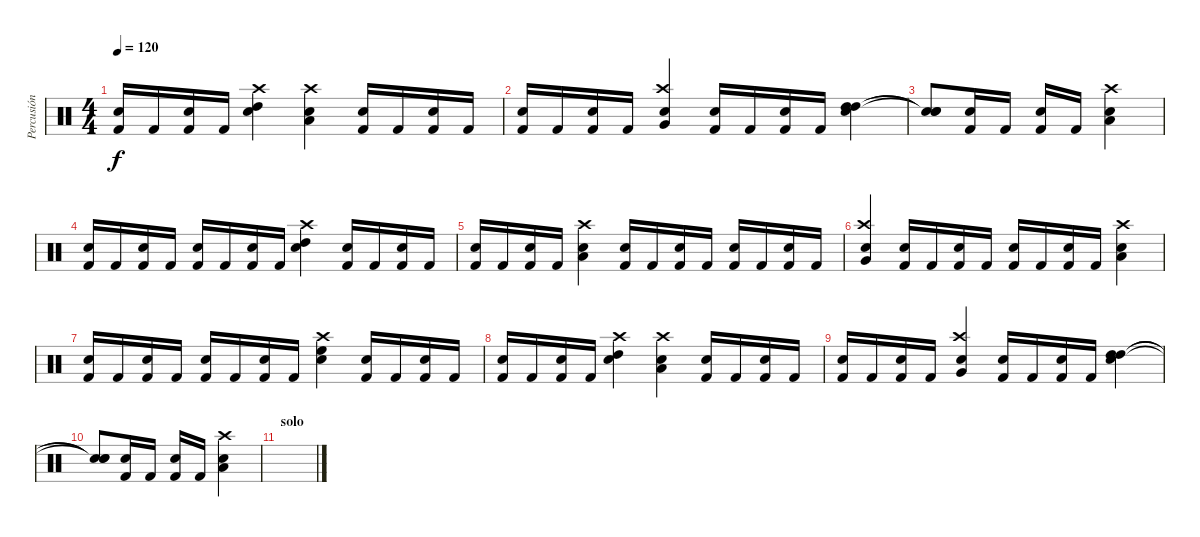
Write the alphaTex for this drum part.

\track ("Percusión" "Percusión") {instrument percussion}
\staff {score}
\articulation defaults
\ts (4 4)
\tempo 120
\clef neutral
\ks c
("Kick (hit) 2" "Electric Snare (hit)").16{dy f} "Kick (hit) 2".16 ("Kick (hit) 2" "Electric Snare (hit)").16 "Kick (hit) 2".16 ("Crash high (hit)" "High Tom (hit)" "Electric Snare (hit)").4 ("Crash high (hit)" "Low Tom (hit)" "Electric Snare (hit)").4 ("Kick (hit) 2" "Electric Snare (hit)").16 "Kick (hit) 2".16 ("Kick (hit) 2" "Electric Snare (hit)").16 "Kick (hit) 2".16 |
("Kick (hit) 2" "Electric Snare (hit)").16 "Kick (hit) 2".16 ("Kick (hit) 2" "Electric Snare (hit)").16 "Kick (hit) 2".16 ("Crash high (hit)" "Very Low Tom (hit)" "Electric Snare (hit)").4 ("Kick (hit) 2" "Electric Snare (hit)").16 "Kick (hit) 2".16 ("Kick (hit) 2" "Electric Snare (hit)").16 "Kick (hit) 2".16 ("High Tom (hit)" "High Tom (hit)" "Electric Snare (hit)").4 |
("Snare (hit)"{t} "Snare (hit)"{t} "Snare (hit)"{t}).8 ("Kick (hit) 2" "Electric Snare (hit)").16 "Kick (hit) 2".16 ("Kick (hit) 2" "Electric Snare (hit)").16 "Kick (hit) 2".16 ("Crash high (hit)" "Low Tom (hit)" "Electric Snare (hit)").4 |
("Kick (hit) 2" "Electric Snare (hit)").16 "Kick (hit) 2".16 ("Kick (hit) 2" "Electric Snare (hit)").16 "Kick (hit) 2".16 ("Kick (hit) 2" "Electric Snare (hit)").16 "Kick (hit) 2".16 ("Kick (hit) 2" "Electric Snare (hit)").16 "Kick (hit) 2".16 ("Crash high (hit)" "High Tom (hit)" "Electric Snare (hit)").4 ("Kick (hit) 2" "Electric Snare (hit)").16 "Kick (hit) 2".16 ("Kick (hit) 2" "Electric Snare (hit)").16 "Kick (hit) 2".16 |
("Kick (hit) 2" "Electric Snare (hit)").16 "Kick (hit) 2".16 ("Kick (hit) 2" "Electric Snare (hit)").16 "Kick (hit) 2".16 ("Crash high (hit)" "Low Tom (hit)" "Electric Snare (hit)").4 ("Kick (hit) 2" "Electric Snare (hit)").16 "Kick (hit) 2".16 ("Kick (hit) 2" "Electric Snare (hit)").16 "Kick (hit) 2".16 ("Kick (hit) 2" "Electric Snare (hit)").16 "Kick (hit) 2".16 ("Kick (hit) 2" "Electric Snare (hit)").16 "Kick (hit) 2".16 |
("Crash high (hit)" "Very Low Tom (hit)" "Electric Snare (hit)").4 ("Kick (hit) 2" "Electric Snare (hit)").16 "Kick (hit) 2".16 ("Kick (hit) 2" "Electric Snare (hit)").16 "Kick (hit) 2".16 ("Kick (hit) 2" "Electric Snare (hit)").16 "Kick (hit) 2".16 ("Kick (hit) 2" "Electric Snare (hit)").16 "Kick (hit) 2".16 ("Crash high (hit)" "Low Floor Tom (hit)" "Electric Snare (hit)").4 |
("Kick (hit) 2" "Electric Snare (hit)").16 "Kick (hit) 2".16 ("Kick (hit) 2" "Electric Snare (hit)").16 "Kick (hit) 2".16 ("Kick (hit) 2" "Electric Snare (hit)").16 "Kick (hit) 2".16 ("Kick (hit) 2" "Electric Snare (hit)").16 "Kick (hit) 2".16 ("Crash high (hit)" "High Floor Tom (hit)" "Electric Snare (hit)").4 ("Kick (hit) 2" "Electric Snare (hit)").16 "Kick (hit) 2".16 ("Kick (hit) 2" "Electric Snare (hit)").16 "Kick (hit) 2".16 |
("Kick (hit) 2" "Electric Snare (hit)").16 "Kick (hit) 2".16 ("Kick (hit) 2" "Electric Snare (hit)").16 "Kick (hit) 2".16 ("Crash high (hit)" "High Tom (hit)" "Electric Snare (hit)").4 ("Crash high (hit)" "Low Tom (hit)" "Electric Snare (hit)").4 ("Kick (hit) 2" "Electric Snare (hit)").16 "Kick (hit) 2".16 ("Kick (hit) 2" "Electric Snare (hit)").16 "Kick (hit) 2".16 |
("Kick (hit) 2" "Electric Snare (hit)").16 "Kick (hit) 2".16 ("Kick (hit) 2" "Electric Snare (hit)").16 "Kick (hit) 2".16 ("Crash high (hit)" "Very Low Tom (hit)" "Electric Snare (hit)").4 ("Kick (hit) 2" "Electric Snare (hit)").16 "Kick (hit) 2".16 ("Kick (hit) 2" "Electric Snare (hit)").16 "Kick (hit) 2".16 ("High Tom (hit)" "High Tom (hit)" "Electric Snare (hit)").4 |
("Snare (hit)"{t} "Snare (hit)"{t} "Snare (hit)"{t}).8 ("Kick (hit) 2" "Electric Snare (hit)").16 "Kick (hit) 2".16 ("Kick (hit) 2" "Electric Snare (hit)").16 "Kick (hit) 2".16 ("Crash high (hit)" "Low Tom (hit)" "Electric Snare (hit)").4 |
\section ("" "solo")
